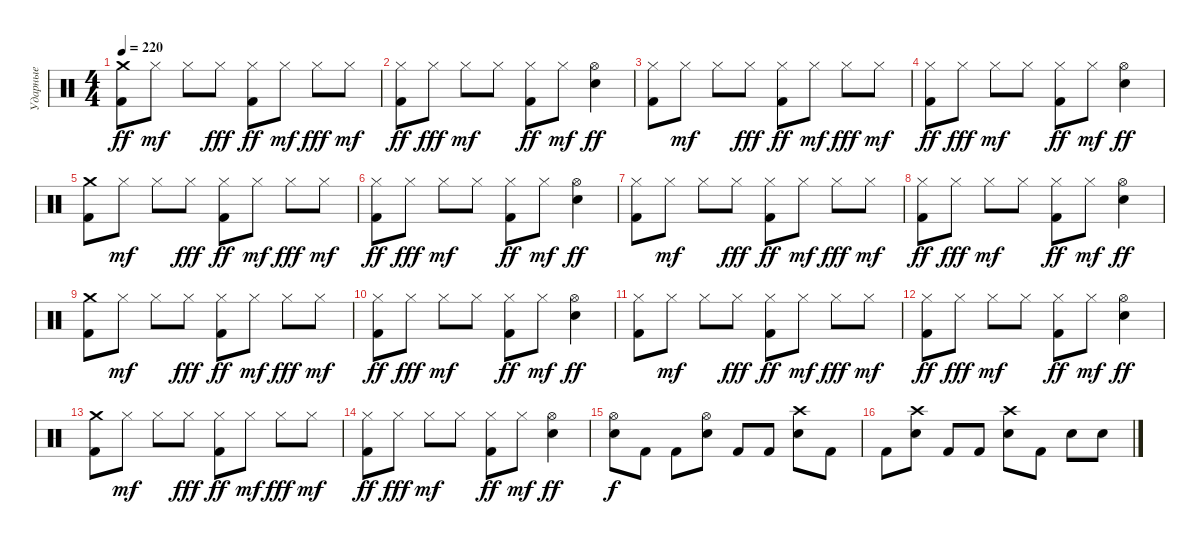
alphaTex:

\track ("Ударные" "Ударные") {instrument percussion}
\staff {score}
\articulation defaults
\ts (4 4)
\tempo 220
\clef neutral
\ks c
("Crash medium (hit)" "Kick (hit) 2").8{dy ff volume 11} "Hi-Hat (closed)".8{dy mf} "Hi-Hat (closed)".8 "Hi-Hat (closed)".8{dy fff} ("Hi-Hat (closed)" "Kick (hit) 2").8{dy ff} "Hi-Hat (closed)".8{dy mf} "Hi-Hat (closed)".8{dy fff} "Hi-Hat (closed)".8{dy mf} |
("Hi-Hat (closed)" "Kick (hit) 2").8{dy ff} "Hi-Hat (closed)".8{dy fff} "Hi-Hat (closed)".8{dy mf} "Hi-Hat (closed)".8 ("Hi-Hat (closed)" "Kick (hit) 2").8{dy ff} "Hi-Hat (closed)".8{dy mf} ("Hi-Hat (open)" "Electric Snare (hit)").4{dy ff} |
("Hi-Hat (closed)" "Kick (hit) 2").8 "Hi-Hat (closed)".8{dy mf} "Hi-Hat (closed)".8 "Hi-Hat (closed)".8{dy fff} ("Hi-Hat (closed)" "Kick (hit) 2").8{dy ff} "Hi-Hat (closed)".8{dy mf} "Hi-Hat (closed)".8{dy fff} "Hi-Hat (closed)".8{dy mf} |
("Hi-Hat (closed)" "Kick (hit) 2").8{dy ff} "Hi-Hat (closed)".8{dy fff} "Hi-Hat (closed)".8{dy mf} "Hi-Hat (closed)".8 ("Hi-Hat (closed)" "Kick (hit) 2").8{dy ff} "Hi-Hat (closed)".8{dy mf} ("Hi-Hat (open)" "Electric Snare (hit)").4{dy ff} |
("Crash medium (hit)" "Kick (hit) 2").8 "Hi-Hat (closed)".8{dy mf} "Hi-Hat (closed)".8 "Hi-Hat (closed)".8{dy fff} ("Hi-Hat (closed)" "Kick (hit) 2").8{dy ff} "Hi-Hat (closed)".8{dy mf} "Hi-Hat (closed)".8{dy fff} "Hi-Hat (closed)".8{dy mf} |
("Hi-Hat (closed)" "Kick (hit) 2").8{dy ff} "Hi-Hat (closed)".8{dy fff} "Hi-Hat (closed)".8{dy mf} "Hi-Hat (closed)".8 ("Hi-Hat (closed)" "Kick (hit) 2").8{dy ff} "Hi-Hat (closed)".8{dy mf} ("Hi-Hat (open)" "Electric Snare (hit)").4{dy ff} |
("Hi-Hat (closed)" "Kick (hit) 2").8 "Hi-Hat (closed)".8{dy mf} "Hi-Hat (closed)".8 "Hi-Hat (closed)".8{dy fff} ("Hi-Hat (closed)" "Kick (hit) 2").8{dy ff} "Hi-Hat (closed)".8{dy mf} "Hi-Hat (closed)".8{dy fff} "Hi-Hat (closed)".8{dy mf} |
("Hi-Hat (closed)" "Kick (hit) 2").8{dy ff} "Hi-Hat (closed)".8{dy fff} "Hi-Hat (closed)".8{dy mf} "Hi-Hat (closed)".8 ("Hi-Hat (closed)" "Kick (hit) 2").8{dy ff} "Hi-Hat (closed)".8{dy mf} ("Hi-Hat (open)" "Electric Snare (hit)").4{dy ff} |
("Crash medium (hit)" "Kick (hit) 2").8{volume 16} "Hi-Hat (closed)".8{dy mf} "Hi-Hat (closed)".8 "Hi-Hat (closed)".8{dy fff} ("Hi-Hat (closed)" "Kick (hit) 2").8{dy ff} "Hi-Hat (closed)".8{dy mf} "Hi-Hat (closed)".8{dy fff} "Hi-Hat (closed)".8{dy mf} |
("Hi-Hat (closed)" "Kick (hit) 2").8{dy ff} "Hi-Hat (closed)".8{dy fff} "Hi-Hat (closed)".8{dy mf} "Hi-Hat (closed)".8 ("Hi-Hat (closed)" "Kick (hit) 2").8{dy ff} "Hi-Hat (closed)".8{dy mf} ("Hi-Hat (open)" "Electric Snare (hit)").4{dy ff} |
("Hi-Hat (closed)" "Kick (hit) 2").8 "Hi-Hat (closed)".8{dy mf} "Hi-Hat (closed)".8 "Hi-Hat (closed)".8{dy fff} ("Hi-Hat (closed)" "Kick (hit) 2").8{dy ff} "Hi-Hat (closed)".8{dy mf} "Hi-Hat (closed)".8{dy fff} "Hi-Hat (closed)".8{dy mf} |
("Hi-Hat (closed)" "Kick (hit) 2").8{dy ff} "Hi-Hat (closed)".8{dy fff} "Hi-Hat (closed)".8{dy mf} "Hi-Hat (closed)".8 ("Hi-Hat (closed)" "Kick (hit) 2").8{dy ff} "Hi-Hat (closed)".8{dy mf} ("Hi-Hat (open)" "Electric Snare (hit)").4{dy ff} |
("Crash medium (hit)" "Kick (hit) 2").8 "Hi-Hat (closed)".8{dy mf} "Hi-Hat (closed)".8 "Hi-Hat (closed)".8{dy fff} ("Hi-Hat (closed)" "Kick (hit) 2").8{dy ff} "Hi-Hat (closed)".8{dy mf} "Hi-Hat (closed)".8{dy fff} "Hi-Hat (closed)".8{dy mf} |
("Hi-Hat (closed)" "Kick (hit) 2").8{dy ff} "Hi-Hat (closed)".8{dy fff} "Hi-Hat (closed)".8{dy mf} "Hi-Hat (closed)".8 ("Hi-Hat (closed)" "Kick (hit) 2").8{dy ff} "Hi-Hat (closed)".8{dy mf} ("Hi-Hat (open)" "Electric Snare (hit)").4{dy ff} |
("Hi-Hat (open)" "Electric Snare (hit)").8{dy f} "Kick (hit) 2".8 "Kick (hit) 2".8 ("Hi-Hat (open)" "Electric Snare (hit)").8 "Kick (hit) 2".8 "Kick (hit) 2".8 ("Crash high (hit)" "Electric Snare (hit)").8 "Kick (hit) 2".8 |
"Kick (hit) 2".8 ("Crash high (hit)" "Electric Snare (hit)").8 "Kick (hit) 2".8 "Kick (hit) 2".8 ("Crash high (hit)" "Electric Snare (hit)").8 "Kick (hit) 2".8 "Electric Snare (hit)".8 "Electric Snare (hit)".8
